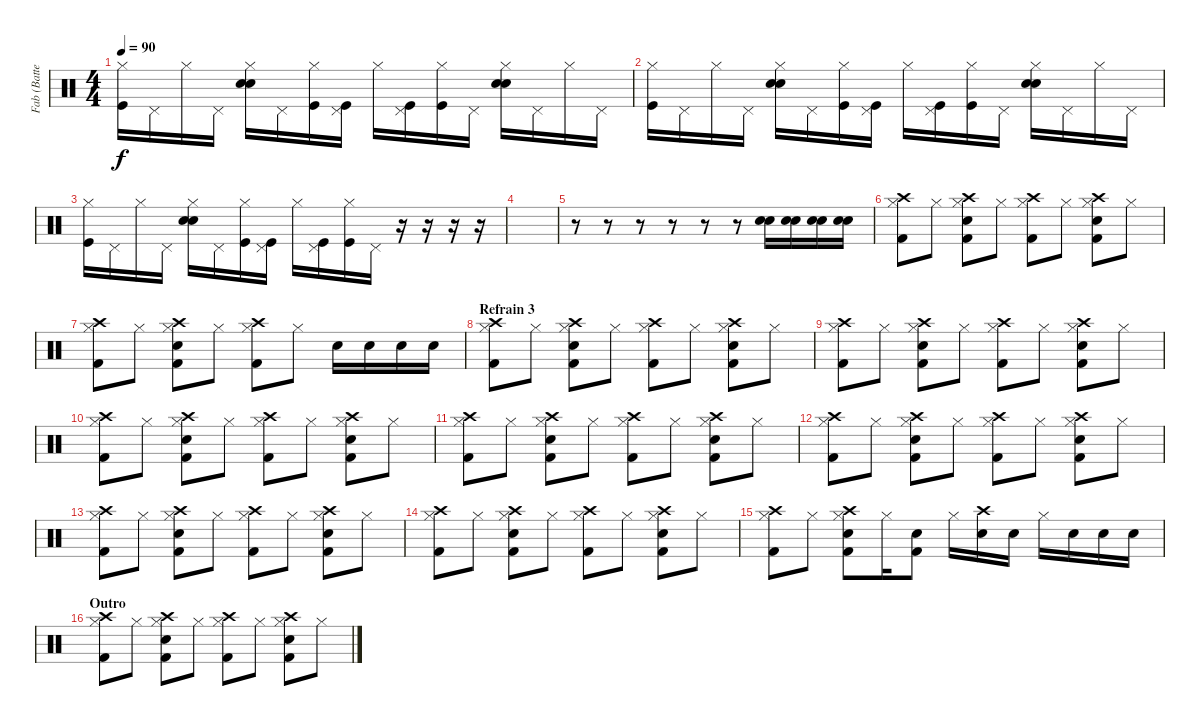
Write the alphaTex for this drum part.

\track ("Fab (Batterie)" "Fab (Batte") {instrument percussion}
\staff {score}
\articulation defaults
\ts (4 4)
\tempo 90
\clef neutral
\ks c
("Hi-Hat (closed)" "Kick (hit)").16{dy f} "Pedal Hi-Hat (hit)".16 "Hi-Hat (closed)".16 "Pedal Hi-Hat (hit)".16 ("Hi-Hat (closed)" "Electric Snare (hit)" "Snare (hit) 2").16 "Pedal Hi-Hat (hit)".16 ("Hi-Hat (closed)" "Kick (hit)").16 ("Pedal Hi-Hat (hit)" "Kick (hit)").16 "Hi-Hat (closed)".16 ("Pedal Hi-Hat (hit)" "Kick (hit)").16 ("Hi-Hat (closed)" "Kick (hit)").16 "Pedal Hi-Hat (hit)".16 ("Hi-Hat (closed)" "Electric Snare (hit)" "Snare (hit) 2").16 "Pedal Hi-Hat (hit)".16 "Hi-Hat (closed)".16 "Pedal Hi-Hat (hit)".16 |
("Hi-Hat (closed)" "Kick (hit)").16 "Pedal Hi-Hat (hit)".16 "Hi-Hat (closed)".16 "Pedal Hi-Hat (hit)".16 ("Hi-Hat (closed)" "Electric Snare (hit)" "Snare (hit) 2").16 "Pedal Hi-Hat (hit)".16 ("Hi-Hat (closed)" "Kick (hit)").16 ("Pedal Hi-Hat (hit)" "Kick (hit)").16 "Hi-Hat (closed)".16 ("Pedal Hi-Hat (hit)" "Kick (hit)").16 ("Hi-Hat (closed)" "Kick (hit)").16 "Pedal Hi-Hat (hit)".16 ("Hi-Hat (closed)" "Electric Snare (hit)" "Snare (hit) 2").16 "Pedal Hi-Hat (hit)".16 "Hi-Hat (closed)".16 "Pedal Hi-Hat (hit)".16 |
("Hi-Hat (closed)" "Kick (hit)").16 "Pedal Hi-Hat (hit)".16 "Hi-Hat (closed)".16 "Pedal Hi-Hat (hit)".16 ("Hi-Hat (closed)" "Electric Snare (hit)" "Snare (hit) 2").16 "Pedal Hi-Hat (hit)".16 ("Hi-Hat (closed)" "Kick (hit)").16 ("Pedal Hi-Hat (hit)" "Kick (hit)").16 "Hi-Hat (closed)".16 ("Pedal Hi-Hat (hit)" "Kick (hit)").16 ("Hi-Hat (closed)" "Kick (hit)").16 "Pedal Hi-Hat (hit)".16 r.16 r.16 r.16 r.16 |
|
r.8 r.8 r.8 r.8 r.8 r.8 ("Snare (hit) 2" "Snare (hit) 2").16 ("Snare (hit) 2" "Snare (hit) 2").16 ("Snare (hit) 2" "Snare (hit) 2").16 ("Snare (hit) 2" "Snare (hit) 2").16 |
("Crash high (hit)" "Hi-Hat (closed)" "Kick (hit) 2").8 "Hi-Hat (closed)".8 ("Crash high (hit)" "Hi-Hat (closed)" "Snare (hit) 2" "Kick (hit) 2").8 "Hi-Hat (closed)".8 ("Crash high (hit)" "Hi-Hat (closed)" "Kick (hit) 2").8 "Hi-Hat (closed)".8 ("Crash high (hit)" "Hi-Hat (closed)" "Snare (hit) 2" "Kick (hit) 2").8 "Hi-Hat (closed)".8 |
("Crash high (hit)" "Hi-Hat (closed)" "Kick (hit) 2").8 "Hi-Hat (closed)".8 ("Crash high (hit)" "Hi-Hat (closed)" "Snare (hit) 2" "Kick (hit) 2").8 "Hi-Hat (closed)".8 ("Crash high (hit)" "Hi-Hat (closed)" "Kick (hit) 2").8 "Hi-Hat (closed)".8 "Snare (hit) 2".16 "Snare (hit) 2".16 "Snare (hit) 2".16 "Snare (hit) 2".16 |
\section ("" "Refrain 3")
("Crash high (hit)" "Hi-Hat (closed)" "Kick (hit) 2").8 "Hi-Hat (closed)".8 ("Crash high (hit)" "Hi-Hat (closed)" "Snare (hit) 2" "Kick (hit) 2").8 "Hi-Hat (closed)".8 ("Crash high (hit)" "Hi-Hat (closed)" "Kick (hit) 2").8 "Hi-Hat (closed)".8 ("Crash high (hit)" "Hi-Hat (closed)" "Snare (hit) 2" "Kick (hit) 2").8 "Hi-Hat (closed)".8 |
("Crash high (hit)" "Hi-Hat (closed)" "Kick (hit) 2").8 "Hi-Hat (closed)".8 ("Crash high (hit)" "Hi-Hat (closed)" "Snare (hit) 2" "Kick (hit) 2").8 "Hi-Hat (closed)".8 ("Crash high (hit)" "Hi-Hat (closed)" "Kick (hit) 2").8 "Hi-Hat (closed)".8 ("Crash high (hit)" "Hi-Hat (closed)" "Snare (hit) 2" "Kick (hit) 2").8 "Hi-Hat (closed)".8 |
("Crash high (hit)" "Hi-Hat (closed)" "Kick (hit) 2").8 "Hi-Hat (closed)".8 ("Crash high (hit)" "Hi-Hat (closed)" "Snare (hit) 2" "Kick (hit) 2").8 "Hi-Hat (closed)".8 ("Crash high (hit)" "Hi-Hat (closed)" "Kick (hit) 2").8 "Hi-Hat (closed)".8 ("Crash high (hit)" "Hi-Hat (closed)" "Snare (hit) 2" "Kick (hit) 2").8 "Hi-Hat (closed)".8 |
("Crash high (hit)" "Hi-Hat (closed)" "Kick (hit) 2").8 "Hi-Hat (closed)".8 ("Crash high (hit)" "Hi-Hat (closed)" "Snare (hit) 2" "Kick (hit) 2").8 "Hi-Hat (closed)".8 ("Crash high (hit)" "Hi-Hat (closed)" "Kick (hit) 2").8 "Hi-Hat (closed)".8 ("Crash high (hit)" "Hi-Hat (closed)" "Snare (hit) 2" "Kick (hit) 2").8 "Hi-Hat (closed)".8 |
("Crash high (hit)" "Hi-Hat (closed)" "Kick (hit) 2").8 "Hi-Hat (closed)".8 ("Crash high (hit)" "Hi-Hat (closed)" "Snare (hit) 2" "Kick (hit) 2").8 "Hi-Hat (closed)".8 ("Crash high (hit)" "Hi-Hat (closed)" "Kick (hit) 2").8 "Hi-Hat (closed)".8 ("Crash high (hit)" "Hi-Hat (closed)" "Snare (hit) 2" "Kick (hit) 2").8 "Hi-Hat (closed)".8 |
("Crash high (hit)" "Hi-Hat (closed)" "Kick (hit) 2").8 "Hi-Hat (closed)".8 ("Crash high (hit)" "Hi-Hat (closed)" "Snare (hit) 2" "Kick (hit) 2").8 "Hi-Hat (closed)".8 ("Crash high (hit)" "Hi-Hat (closed)" "Kick (hit) 2").8 "Hi-Hat (closed)".8 ("Crash high (hit)" "Hi-Hat (closed)" "Snare (hit) 2" "Kick (hit) 2").8 "Hi-Hat (closed)".8 |
("Crash high (hit)" "Hi-Hat (closed)" "Kick (hit) 2").8 "Hi-Hat (closed)".8 ("Crash high (hit)" "Hi-Hat (closed)" "Snare (hit) 2" "Kick (hit) 2").8 "Hi-Hat (closed)".8 ("Crash high (hit)" "Hi-Hat (closed)" "Kick (hit) 2").8 "Hi-Hat (closed)".8 ("Crash high (hit)" "Hi-Hat (closed)" "Snare (hit) 2" "Kick (hit) 2").8 "Hi-Hat (closed)".8 |
("Crash high (hit)" "Hi-Hat (closed)" "Kick (hit) 2").8 "Hi-Hat (closed)".8 ("Crash high (hit)" "Hi-Hat (closed)" "Snare (hit) 2" "Kick (hit) 2").8 "Hi-Hat (closed)".16 ("Snare (hit) 2" "Kick (hit) 2").8 "Hi-Hat (closed)".16 ("Crash high (hit)" "Snare (hit) 2").16 "Snare (hit) 2".16 "Hi-Hat (closed)".16 "Snare (hit) 2".16 "Snare (hit) 2".16 "Snare (hit) 2".16 |
\section ("" "Outro")
("Crash high (hit)" "Hi-Hat (closed)" "Kick (hit) 2").8 "Hi-Hat (closed)".8 ("Crash high (hit)" "Hi-Hat (closed)" "Snare (hit) 2" "Kick (hit) 2").8 "Hi-Hat (closed)".8 ("Crash high (hit)" "Hi-Hat (closed)" "Kick (hit) 2").8 "Hi-Hat (closed)".8 ("Crash high (hit)" "Hi-Hat (closed)" "Snare (hit) 2" "Kick (hit) 2").8 "Hi-Hat (closed)".8
